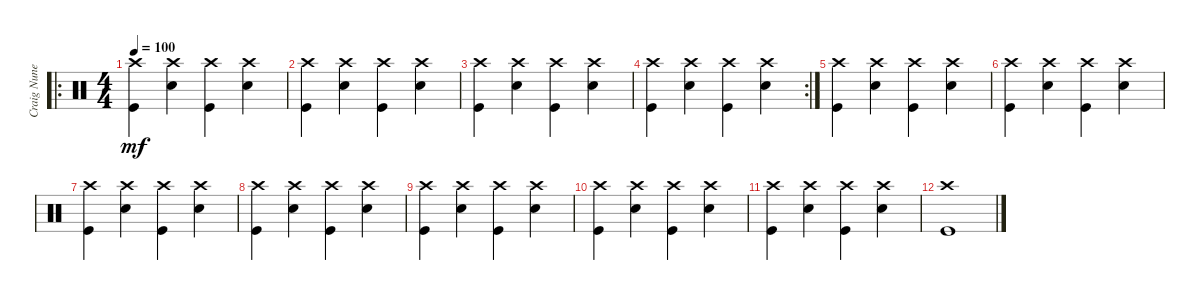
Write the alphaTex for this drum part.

\track ("Craig Nunenmacher (Drums)" "Craig Nune") {instrument percussion}
\staff {score}
\articulation defaults
\ro
\ts (4 4)
\tempo 100
\clef neutral
\ks c
("Crash high (hit)" "Kick (hit)").4{dy mf} ("Crash high (hit)" "Snare (hit) 2").4 ("Crash high (hit)" "Kick (hit)").4 ("Crash high (hit)" "Snare (hit) 2").4 |
("Crash high (hit)" "Kick (hit)").4 ("Crash high (hit)" "Snare (hit) 2").4 ("Crash high (hit)" "Kick (hit)").4 ("Crash high (hit)" "Snare (hit) 2").4 |
("Crash high (hit)" "Kick (hit)").4 ("Crash high (hit)" "Snare (hit) 2").4 ("Crash high (hit)" "Kick (hit)").4 ("Crash high (hit)" "Snare (hit) 2").4 |
\rc 2
("Crash high (hit)" "Kick (hit)").4 ("Crash high (hit)" "Snare (hit) 2").4 ("Crash high (hit)" "Kick (hit)").4 ("Crash high (hit)" "Snare (hit) 2").4 |
("Crash high (hit)" "Kick (hit)").4 ("Crash high (hit)" "Snare (hit) 2").4 ("Crash high (hit)" "Kick (hit)").4 ("Crash high (hit)" "Snare (hit) 2").4 |
("Crash high (hit)" "Kick (hit)").4 ("Crash high (hit)" "Snare (hit) 2").4 ("Crash high (hit)" "Kick (hit)").4 ("Crash high (hit)" "Snare (hit) 2").4 |
("Crash high (hit)" "Kick (hit)").4 ("Crash high (hit)" "Snare (hit) 2").4 ("Crash high (hit)" "Kick (hit)").4 ("Crash high (hit)" "Snare (hit) 2").4 |
("Crash high (hit)" "Kick (hit)").4 ("Crash high (hit)" "Snare (hit) 2").4 ("Crash high (hit)" "Kick (hit)").4 ("Crash high (hit)" "Snare (hit) 2").4 |
("Crash high (hit)" "Kick (hit)").4 ("Crash high (hit)" "Snare (hit) 2").4 ("Crash high (hit)" "Kick (hit)").4 ("Crash high (hit)" "Snare (hit) 2").4 |
("Crash high (hit)" "Kick (hit)").4 ("Crash high (hit)" "Snare (hit) 2").4 ("Crash high (hit)" "Kick (hit)").4 ("Crash high (hit)" "Snare (hit) 2").4 |
("Crash high (hit)" "Kick (hit)").4 ("Crash high (hit)" "Snare (hit) 2").4 ("Crash high (hit)" "Kick (hit)").4 ("Crash high (hit)" "Snare (hit) 2").4 |
("Crash high (hit)" "Kick (hit)").1
